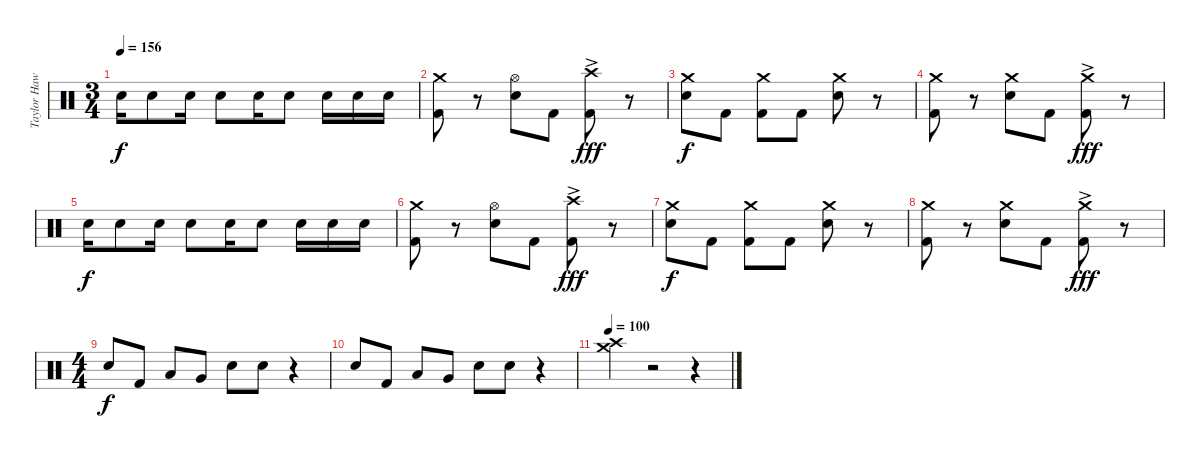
\track ("Taylor Hawkins" "Taylor Haw") {instrument percussion}
\staff {score}
\articulation defaults
\ts (3 4)
\tempo 156
\clef neutral
\ks c "Electric Snare (hit)".16{dy f} "Electric Snare (hit)".8 "Electric Snare (hit)".16 "Electric Snare (hit)".8 "Electric Snare (hit)".16 "Electric Snare (hit)".8 "Electric Snare (hit)".16 "Electric Snare (hit)".16 "Electric Snare (hit)".16
|
("Crash medium (hit)" "Kick (hit) 2").8 r.8 ("Hi-Hat (open)" "Electric Snare (hit)").8 "Kick (hit) 2".8 ("Crash high (hit)"{ac} "Kick (hit) 2").8{dy fff} r.8 |
("Crash medium (hit)" "Electric Snare (hit)").8{dy f} "Kick (hit) 2".8 ("Crash medium (hit)" "Kick (hit) 2").8 "Kick (hit) 2".8 ("Crash medium (hit)" "Electric Snare (hit)").8 r.8 |
("Crash medium (hit)" "Kick (hit) 2").8 r.8 ("Crash medium (hit)" "Electric Snare (hit)").8 "Kick (hit) 2".8 ("Crash medium (hit)"{ac} "Kick (hit) 2").8{dy fff} r.8 |
"Electric Snare (hit)".16{dy f} "Electric Snare (hit)".8 "Electric Snare (hit)".16 "Electric Snare (hit)".8 "Electric Snare (hit)".16 "Electric Snare (hit)".8 "Electric Snare (hit)".16 "Electric Snare (hit)".16 "Electric Snare (hit)".16 |
("Crash medium (hit)" "Kick (hit) 2").8 r.8 ("Hi-Hat (open)" "Electric Snare (hit)").8 "Kick (hit) 2".8 ("Crash high (hit)"{ac} "Kick (hit) 2").8{dy fff} r.8 |
("Crash medium (hit)" "Electric Snare (hit)").8{dy f} "Kick (hit) 2".8 ("Crash medium (hit)" "Kick (hit) 2").8 "Kick (hit) 2".8 ("Crash medium (hit)" "Electric Snare (hit)").8 r.8 |
("Crash medium (hit)" "Kick (hit) 2").8 r.8 ("Crash medium (hit)" "Electric Snare (hit)").8 "Kick (hit) 2".8 ("Crash medium (hit)"{ac} "Kick (hit) 2").8{dy fff} r.8 |
\ts (4 4)
"Snare (hit) 2".8{dy f} "Kick (hit) 2".8 "Low Tom (hit)".8 "Very Low Tom (hit)".8 "Snare (hit) 2".8 "Snare (hit) 2".8 r.4 |
"Snare (hit) 2".8 "Kick (hit) 2".8 "Low Tom (hit)".8 "Very Low Tom (hit)".8 "Snare (hit) 2".8 "Snare (hit) 2".8 r.4 |
\tempo 100
("Crash high (hit)" "Crash medium (hit)").4 r.2 r.4
